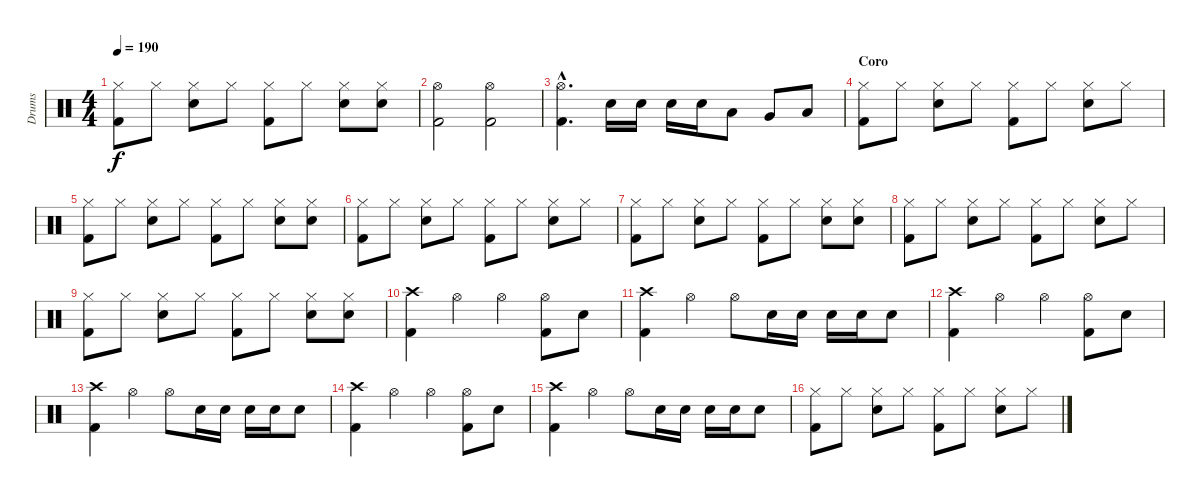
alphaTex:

\track ("Drums" "Drums") {instrument percussion}
\staff {score}
\articulation defaults
\ts (4 4)
\tempo 190
\clef neutral
\ks c
("Kick (hit) 2" "Hi-Hat (closed)").8{dy f} "Hi-Hat (closed)".8 ("Snare (hit) 2" "Hi-Hat (closed)").8 "Hi-Hat (closed)".8 ("Kick (hit) 2" "Hi-Hat (closed)").8 "Hi-Hat (closed)".8 ("Snare (hit) 2" "Hi-Hat (closed)").8 ("Snare (hit) 2" "Hi-Hat (closed)").8 |
("Hi-Hat (open)" "Kick (hit) 2").2 ("Kick (hit) 2" "Hi-Hat (open)").2 |
("Hi-Hat (open)"{hac} "Kick (hit) 2"{hac}).4{d} "Snare (hit) 2".16 "Snare (hit) 2".16 "Snare (hit) 2".16 "Snare (hit) 2".16 "Low Tom (hit)".8 "Very Low Tom (hit)".8 "Low Floor Tom (hit)".8 |
\section ("" "Coro")
("Kick (hit) 2" "Hi-Hat (closed)").8 "Hi-Hat (closed)".8 ("Snare (hit) 2" "Hi-Hat (closed)").8 "Hi-Hat (closed)".8 ("Kick (hit) 2" "Hi-Hat (closed)").8 "Hi-Hat (closed)".8 ("Snare (hit) 2" "Hi-Hat (closed)").8 "Hi-Hat (closed)".8 |
("Kick (hit) 2" "Hi-Hat (closed)").8 "Hi-Hat (closed)".8 ("Snare (hit) 2" "Hi-Hat (closed)").8 "Hi-Hat (closed)".8 ("Kick (hit) 2" "Hi-Hat (closed)").8 "Hi-Hat (closed)".8 ("Snare (hit) 2" "Hi-Hat (closed)").8 ("Snare (hit) 2" "Hi-Hat (closed)").8 |
("Kick (hit) 2" "Hi-Hat (closed)").8 "Hi-Hat (closed)".8 ("Snare (hit) 2" "Hi-Hat (closed)").8 "Hi-Hat (closed)".8 ("Kick (hit) 2" "Hi-Hat (closed)").8 "Hi-Hat (closed)".8 ("Snare (hit) 2" "Hi-Hat (closed)").8 "Hi-Hat (closed)".8 |
("Kick (hit) 2" "Hi-Hat (closed)").8 "Hi-Hat (closed)".8 ("Snare (hit) 2" "Hi-Hat (closed)").8 "Hi-Hat (closed)".8 ("Kick (hit) 2" "Hi-Hat (closed)").8 "Hi-Hat (closed)".8 ("Snare (hit) 2" "Hi-Hat (closed)").8 ("Snare (hit) 2" "Hi-Hat (closed)").8 |
("Kick (hit) 2" "Hi-Hat (closed)").8 "Hi-Hat (closed)".8 ("Snare (hit) 2" "Hi-Hat (closed)").8 "Hi-Hat (closed)".8 ("Kick (hit) 2" "Hi-Hat (closed)").8 "Hi-Hat (closed)".8 ("Snare (hit) 2" "Hi-Hat (closed)").8 "Hi-Hat (closed)".8 |
("Kick (hit) 2" "Hi-Hat (closed)").8 "Hi-Hat (closed)".8 ("Snare (hit) 2" "Hi-Hat (closed)").8 "Hi-Hat (closed)".8 ("Kick (hit) 2" "Hi-Hat (closed)").8 "Hi-Hat (closed)".8 ("Snare (hit) 2" "Hi-Hat (closed)").8 ("Snare (hit) 2" "Hi-Hat (closed)").8 |
("Crash high (hit)" "Kick (hit) 2").4 "Hi-Hat (open)".4 "Hi-Hat (open)".4 ("Hi-Hat (open)" "Kick (hit) 2").8 "Snare (hit) 2".8 |
("Crash high (hit)" "Kick (hit) 2").4 "Hi-Hat (open)".4 "Hi-Hat (open)".8 "Snare (hit) 2".16 "Snare (hit) 2".16 "Snare (hit) 2".16 "Snare (hit) 2".16 "Snare (hit) 2".8 |
("Crash high (hit)" "Kick (hit) 2").4 "Hi-Hat (open)".4 "Hi-Hat (open)".4 ("Hi-Hat (open)" "Kick (hit) 2").8 "Snare (hit) 2".8 |
("Crash high (hit)" "Kick (hit) 2").4 "Hi-Hat (open)".4 "Hi-Hat (open)".8 "Snare (hit) 2".16 "Snare (hit) 2".16 "Snare (hit) 2".16 "Snare (hit) 2".16 "Snare (hit) 2".8 |
("Crash high (hit)" "Kick (hit) 2").4 "Hi-Hat (open)".4 "Hi-Hat (open)".4 ("Hi-Hat (open)" "Kick (hit) 2").8 "Snare (hit) 2".8 |
("Crash high (hit)" "Kick (hit) 2").4 "Hi-Hat (open)".4 "Hi-Hat (open)".8 "Snare (hit) 2".16 "Snare (hit) 2".16 "Snare (hit) 2".16 "Snare (hit) 2".16 "Snare (hit) 2".8 |
("Kick (hit) 2" "Hi-Hat (closed)").8 "Hi-Hat (closed)".8 ("Snare (hit) 2" "Hi-Hat (closed)").8 "Hi-Hat (closed)".8 ("Kick (hit) 2" "Hi-Hat (closed)").8 "Hi-Hat (closed)".8 ("Snare (hit) 2" "Hi-Hat (closed)").8 "Hi-Hat (closed)".8
